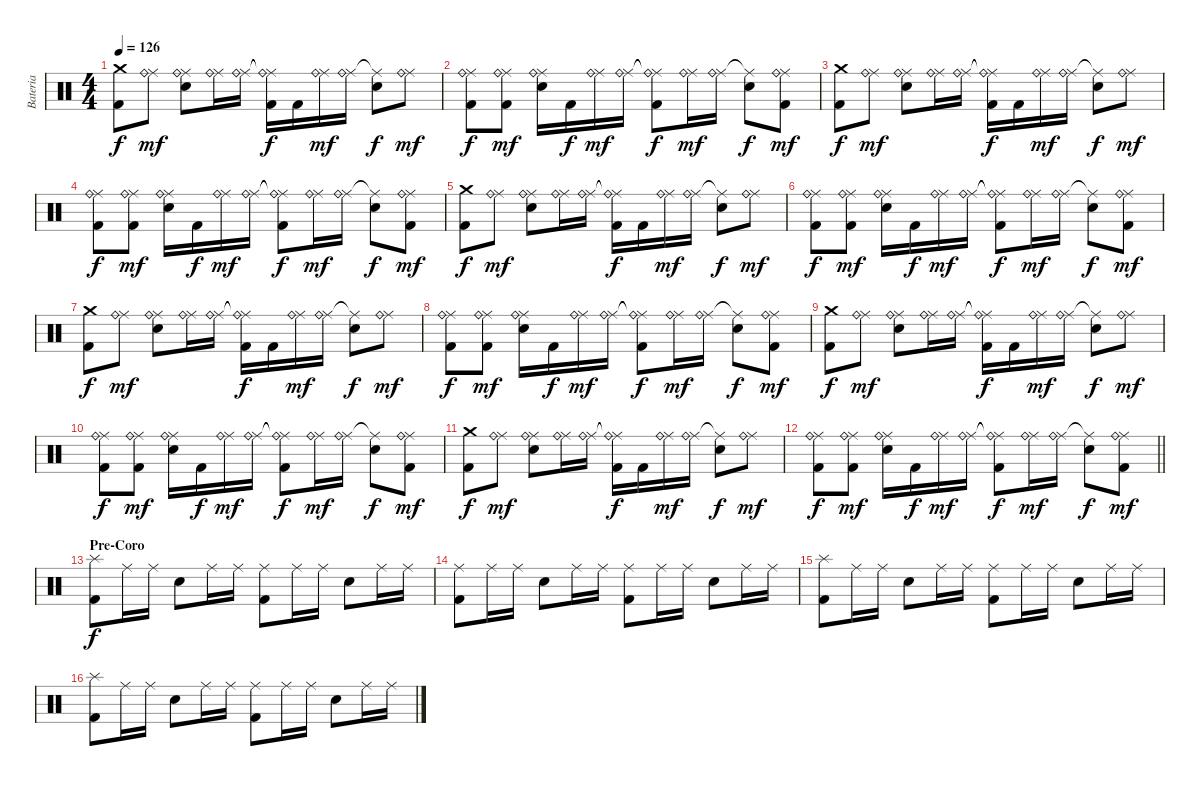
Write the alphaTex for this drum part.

\track ("Bateria" "Bateria") {instrument percussion}
\staff {score}
\articulation defaults
\ts (4 4)
\tempo 126
\clef neutral
\ks c
("Crash medium (hit)" "Kick (hit) 2").8{dy f} ("Ride (middle)" "Ride (bell)").8{dy mf} ("Ride (middle)" "Ride (bell)" "Electric Snare (hit)").8 ("Ride (middle)" "Ride (bell)").16 ("Ride (middle)" "Ride (bell)").16 ("Ride (middle)"{t} "Ride (bell)"{t} "Kick (hit) 2").16{dy f} "Kick (hit) 2".16 ("Ride (middle)" "Ride (bell)").16{dy mf} ("Ride (middle)" "Ride (bell)").16 ("Ride (middle)"{t} "Electric Snare (hit)").8{dy f} ("Ride (middle)" "Ride (bell)").8{dy mf} |
("Ride (middle)" "Ride (bell)" "Kick (hit) 2").8{dy f} ("Ride (middle)" "Ride (bell)" "Kick (hit) 2").8{dy mf} ("Ride (middle)" "Ride (bell)" "Electric Snare (hit)").16 "Kick (hit) 2".16{dy f} ("Ride (middle)" "Ride (bell)").16{dy mf} ("Ride (middle)" "Ride (bell)").16 ("Ride (middle)"{t} "Ride (bell)"{t} "Kick (hit) 2").8{dy f} ("Ride (middle)" "Ride (bell)").16{dy mf} ("Ride (middle)" "Ride (bell)").16 ("Ride (middle)"{t} "Electric Snare (hit)").8{dy f} ("Ride (middle)" "Ride (bell)" "Kick (hit) 2").8{dy mf} |
("Crash medium (hit)" "Kick (hit) 2").8{dy f} ("Ride (middle)" "Ride (bell)").8{dy mf} ("Ride (middle)" "Ride (bell)" "Electric Snare (hit)").8 ("Ride (middle)" "Ride (bell)").16 ("Ride (middle)" "Ride (bell)").16 ("Ride (middle)"{t} "Ride (bell)"{t} "Kick (hit) 2").16{dy f} "Kick (hit) 2".16 ("Ride (middle)" "Ride (bell)").16{dy mf} ("Ride (middle)" "Ride (bell)").16 ("Ride (middle)"{t} "Electric Snare (hit)").8{dy f} ("Ride (middle)" "Ride (bell)").8{dy mf} |
("Ride (middle)" "Ride (bell)" "Kick (hit) 2").8{dy f} ("Ride (middle)" "Ride (bell)" "Kick (hit) 2").8{dy mf} ("Ride (middle)" "Ride (bell)" "Electric Snare (hit)").16 "Kick (hit) 2".16{dy f} ("Ride (middle)" "Ride (bell)").16{dy mf} ("Ride (middle)" "Ride (bell)").16 ("Ride (middle)"{t} "Ride (bell)"{t} "Kick (hit) 2").8{dy f} ("Ride (middle)" "Ride (bell)").16{dy mf} ("Ride (middle)" "Ride (bell)").16 ("Ride (middle)"{t} "Electric Snare (hit)").8{dy f} ("Ride (middle)" "Ride (bell)" "Kick (hit) 2").8{dy mf} |
("Crash medium (hit)" "Kick (hit) 2").8{dy f} ("Ride (middle)" "Ride (bell)").8{dy mf} ("Ride (middle)" "Ride (bell)" "Electric Snare (hit)").8 ("Ride (middle)" "Ride (bell)").16 ("Ride (middle)" "Ride (bell)").16 ("Ride (middle)"{t} "Ride (bell)"{t} "Kick (hit) 2").16{dy f} "Kick (hit) 2".16 ("Ride (middle)" "Ride (bell)").16{dy mf} ("Ride (middle)" "Ride (bell)").16 ("Ride (middle)"{t} "Electric Snare (hit)").8{dy f} ("Ride (middle)" "Ride (bell)").8{dy mf} |
("Ride (middle)" "Ride (bell)" "Kick (hit) 2").8{dy f} ("Ride (middle)" "Ride (bell)" "Kick (hit) 2").8{dy mf} ("Ride (middle)" "Ride (bell)" "Electric Snare (hit)").16 "Kick (hit) 2".16{dy f} ("Ride (middle)" "Ride (bell)").16{dy mf} ("Ride (middle)" "Ride (bell)").16 ("Ride (middle)"{t} "Ride (bell)"{t} "Kick (hit) 2").8{dy f} ("Ride (middle)" "Ride (bell)").16{dy mf} ("Ride (middle)" "Ride (bell)").16 ("Ride (middle)"{t} "Electric Snare (hit)").8{dy f} ("Ride (middle)" "Ride (bell)" "Kick (hit) 2").8{dy mf} |
("Crash medium (hit)" "Kick (hit) 2").8{dy f} ("Ride (middle)" "Ride (bell)").8{dy mf} ("Ride (middle)" "Ride (bell)" "Electric Snare (hit)").8 ("Ride (middle)" "Ride (bell)").16 ("Ride (middle)" "Ride (bell)").16 ("Ride (middle)"{t} "Ride (bell)"{t} "Kick (hit) 2").16{dy f} "Kick (hit) 2".16 ("Ride (middle)" "Ride (bell)").16{dy mf} ("Ride (middle)" "Ride (bell)").16 ("Ride (middle)"{t} "Electric Snare (hit)").8{dy f} ("Ride (middle)" "Ride (bell)").8{dy mf} |
("Ride (middle)" "Ride (bell)" "Kick (hit) 2").8{dy f} ("Ride (middle)" "Ride (bell)" "Kick (hit) 2").8{dy mf} ("Ride (middle)" "Ride (bell)" "Electric Snare (hit)").16 "Kick (hit) 2".16{dy f} ("Ride (middle)" "Ride (bell)").16{dy mf} ("Ride (middle)" "Ride (bell)").16 ("Ride (middle)"{t} "Ride (bell)"{t} "Kick (hit) 2").8{dy f} ("Ride (middle)" "Ride (bell)").16{dy mf} ("Ride (middle)" "Ride (bell)").16 ("Ride (middle)"{t} "Electric Snare (hit)").8{dy f} ("Ride (middle)" "Ride (bell)" "Kick (hit) 2").8{dy mf} |
("Crash medium (hit)" "Kick (hit) 2").8{dy f} ("Ride (middle)" "Ride (bell)").8{dy mf} ("Ride (middle)" "Ride (bell)" "Electric Snare (hit)").8 ("Ride (middle)" "Ride (bell)").16 ("Ride (middle)" "Ride (bell)").16 ("Ride (middle)"{t} "Ride (bell)"{t} "Kick (hit) 2").16{dy f} "Kick (hit) 2".16 ("Ride (middle)" "Ride (bell)").16{dy mf} ("Ride (middle)" "Ride (bell)").16 ("Ride (middle)"{t} "Electric Snare (hit)").8{dy f} ("Ride (middle)" "Ride (bell)").8{dy mf} |
("Ride (middle)" "Ride (bell)" "Kick (hit) 2").8{dy f} ("Ride (middle)" "Ride (bell)" "Kick (hit) 2").8{dy mf} ("Ride (middle)" "Ride (bell)" "Electric Snare (hit)").16 "Kick (hit) 2".16{dy f} ("Ride (middle)" "Ride (bell)").16{dy mf} ("Ride (middle)" "Ride (bell)").16 ("Ride (middle)"{t} "Ride (bell)"{t} "Kick (hit) 2").8{dy f} ("Ride (middle)" "Ride (bell)").16{dy mf} ("Ride (middle)" "Ride (bell)").16 ("Ride (middle)"{t} "Electric Snare (hit)").8{dy f} ("Ride (middle)" "Ride (bell)" "Kick (hit) 2").8{dy mf} |
("Crash medium (hit)" "Kick (hit) 2").8{dy f} ("Ride (middle)" "Ride (bell)").8{dy mf} ("Ride (middle)" "Ride (bell)" "Electric Snare (hit)").8 ("Ride (middle)" "Ride (bell)").16 ("Ride (middle)" "Ride (bell)").16 ("Ride (middle)"{t} "Ride (bell)"{t} "Kick (hit) 2").16{dy f} "Kick (hit) 2".16 ("Ride (middle)" "Ride (bell)").16{dy mf} ("Ride (middle)" "Ride (bell)").16 ("Ride (middle)"{t} "Electric Snare (hit)").8{dy f} ("Ride (middle)" "Ride (bell)").8{dy mf} |
\barLineRight lightlight
("Ride (middle)" "Ride (bell)" "Kick (hit) 2").8{dy f} ("Ride (middle)" "Ride (bell)" "Kick (hit) 2").8{dy mf} ("Ride (middle)" "Ride (bell)" "Electric Snare (hit)").16 "Kick (hit) 2".16{dy f} ("Ride (middle)" "Ride (bell)").16{dy mf} ("Ride (middle)" "Ride (bell)").16 ("Ride (middle)"{t} "Ride (bell)"{t} "Kick (hit) 2").8{dy f} ("Ride (middle)" "Ride (bell)").16{dy mf} ("Ride (middle)" "Ride (bell)").16 ("Ride (middle)"{t} "Electric Snare (hit)").8{dy f} ("Ride (middle)" "Ride (bell)" "Kick (hit) 2").8{dy mf} |
\section ("" "Pre-Coro")
("Splash (hit)" "Kick (hit) 2").8{dy f} "Ride (middle)".16 "Ride (middle)".16 "Electric Snare (hit)".8 "Ride (middle)".16 "Ride (middle)".16 ("Ride (middle)" "Kick (hit) 2").8 "Ride (middle)".16 "Ride (middle)".16 "Electric Snare (hit)".8 "Ride (middle)".16 "Ride (middle)".16 |
("Ride (middle)" "Kick (hit) 2").8 "Ride (middle)".16 "Ride (middle)".16 "Electric Snare (hit)".8 "Ride (middle)".16 "Ride (middle)".16 ("Ride (middle)" "Kick (hit) 2").8 "Ride (middle)".16 "Ride (middle)".16 "Electric Snare (hit)".8 "Ride (middle)".16 "Ride (middle)".16 |
("Splash (hit)" "Kick (hit) 2").8 "Ride (middle)".16 "Ride (middle)".16 "Electric Snare (hit)".8 "Ride (middle)".16 "Ride (middle)".16 ("Ride (middle)" "Kick (hit) 2").8 "Ride (middle)".16 "Ride (middle)".16 "Electric Snare (hit)".8 "Ride (middle)".16 "Ride (middle)".16 |
("Splash (hit)" "Kick (hit) 2").8 "Ride (middle)".16 "Ride (middle)".16 "Electric Snare (hit)".8 "Ride (middle)".16 "Ride (middle)".16 ("Ride (middle)" "Kick (hit) 2").8 "Ride (middle)".16 "Ride (middle)".16 "Electric Snare (hit)".8 "Ride (middle)".16 "Ride (middle)".16
